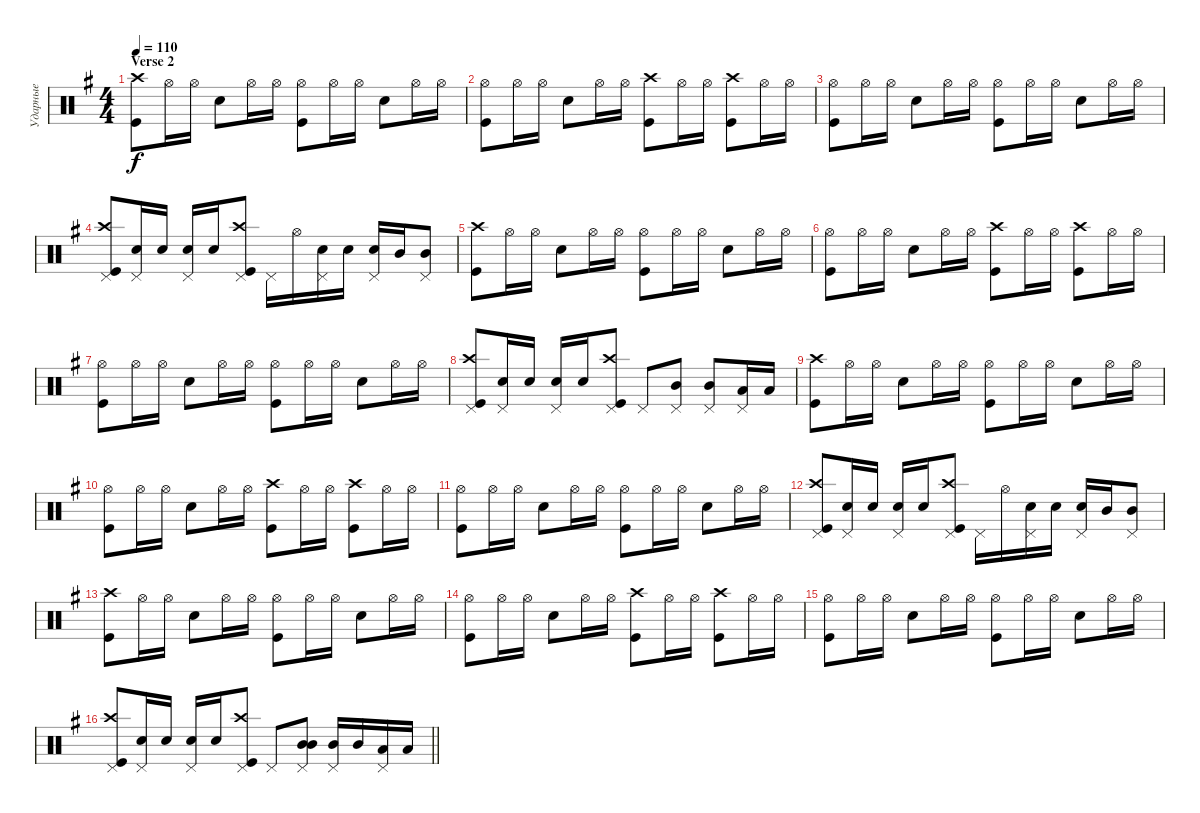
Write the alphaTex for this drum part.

\track ("Ударные" "Ударные") {instrument percussion}
\staff {score}
\articulation defaults
\ts (4 4)
\section ("" "Verse 2")
\tempo 110
\clef neutral
\ks eminor
("Kick (hit)" "Crash high (hit)").8{dy f} "Hi-Hat (open)".16 "Hi-Hat (open)".16 "Snare (hit) 2".8 "Hi-Hat (open)".16 "Hi-Hat (open)".16 ("Kick (hit)" "Hi-Hat (open)").8 "Hi-Hat (open)".16 "Hi-Hat (open)".16 "Snare (hit) 2".8 "Hi-Hat (open)".16 "Hi-Hat (open)".16 |
("Kick (hit)" "Hi-Hat (open)").8 "Hi-Hat (open)".16 "Hi-Hat (open)".16 "Snare (hit) 2".8 "Hi-Hat (open)".16 "Hi-Hat (open)".16 ("Kick (hit)" "Crash high (hit)").8 "Hi-Hat (open)".16 "Hi-Hat (open)".16 ("Kick (hit)" "Crash high (hit)").8 "Hi-Hat (open)".16 "Hi-Hat (open)".16 |
("Kick (hit)" "Hi-Hat (open)").8 "Hi-Hat (open)".16 "Hi-Hat (open)".16 "Snare (hit) 2".8 "Hi-Hat (open)".16 "Hi-Hat (open)".16 ("Kick (hit)" "Hi-Hat (open)").8 "Hi-Hat (open)".16 "Hi-Hat (open)".16 "Snare (hit) 2".8 "Hi-Hat (open)".16 "Hi-Hat (open)".16 |
("Kick (hit)" "Crash high (hit)" "Pedal Hi-Hat (hit)").8 ("Snare (hit) 2" "Pedal Hi-Hat (hit)").16 "Snare (hit) 2".16 ("Snare (hit) 2" "Pedal Hi-Hat (hit)").16 "Snare (hit) 2".16 ("Kick (hit)" "Crash high (hit)" "Pedal Hi-Hat (hit)").8 "Pedal Hi-Hat (hit)".16 "Hi-Hat (open)".16 ("Snare (hit) 2" "Pedal Hi-Hat (hit)").16 "Snare (hit) 2".16 ("Snare (hit) 2" "Pedal Hi-Hat (hit)").16 "Mid Tom (hit)".16 ("Mid Tom (hit)" "Pedal Hi-Hat (hit)").8 |
("Kick (hit)" "Crash high (hit)").8 "Hi-Hat (open)".16 "Hi-Hat (open)".16 "Snare (hit) 2".8 "Hi-Hat (open)".16 "Hi-Hat (open)".16 ("Kick (hit)" "Hi-Hat (open)").8 "Hi-Hat (open)".16 "Hi-Hat (open)".16 "Snare (hit) 2".8 "Hi-Hat (open)".16 "Hi-Hat (open)".16 |
("Kick (hit)" "Hi-Hat (open)").8 "Hi-Hat (open)".16 "Hi-Hat (open)".16 "Snare (hit) 2".8 "Hi-Hat (open)".16 "Hi-Hat (open)".16 ("Kick (hit)" "Crash high (hit)").8 "Hi-Hat (open)".16 "Hi-Hat (open)".16 ("Kick (hit)" "Crash high (hit)").8 "Hi-Hat (open)".16 "Hi-Hat (open)".16 |
("Kick (hit)" "Hi-Hat (open)").8 "Hi-Hat (open)".16 "Hi-Hat (open)".16 "Snare (hit) 2".8 "Hi-Hat (open)".16 "Hi-Hat (open)".16 ("Kick (hit)" "Hi-Hat (open)").8 "Hi-Hat (open)".16 "Hi-Hat (open)".16 "Snare (hit) 2".8 "Hi-Hat (open)".16 "Hi-Hat (open)".16 |
("Kick (hit)" "Crash high (hit)" "Pedal Hi-Hat (hit)").8 ("Snare (hit) 2" "Pedal Hi-Hat (hit)").16 "Snare (hit) 2".16 ("Snare (hit) 2" "Pedal Hi-Hat (hit)").16 "Snare (hit) 2".16 ("Kick (hit)" "Crash high (hit)" "Pedal Hi-Hat (hit)").8 "Pedal Hi-Hat (hit)".8 ("Mid Tom (hit)" "Pedal Hi-Hat (hit)").8 ("Mid Tom (hit)" "Pedal Hi-Hat (hit)").8 ("Low Tom (hit)" "Pedal Hi-Hat (hit)").16 "Low Tom (hit)".16 |
("Kick (hit)" "Crash high (hit)").8 "Hi-Hat (open)".16 "Hi-Hat (open)".16 "Snare (hit) 2".8 "Hi-Hat (open)".16 "Hi-Hat (open)".16 ("Kick (hit)" "Hi-Hat (open)").8 "Hi-Hat (open)".16 "Hi-Hat (open)".16 "Snare (hit) 2".8 "Hi-Hat (open)".16 "Hi-Hat (open)".16 |
("Kick (hit)" "Hi-Hat (open)").8 "Hi-Hat (open)".16 "Hi-Hat (open)".16 "Snare (hit) 2".8 "Hi-Hat (open)".16 "Hi-Hat (open)".16 ("Kick (hit)" "Crash high (hit)").8 "Hi-Hat (open)".16 "Hi-Hat (open)".16 ("Kick (hit)" "Crash high (hit)").8 "Hi-Hat (open)".16 "Hi-Hat (open)".16 |
("Kick (hit)" "Hi-Hat (open)").8 "Hi-Hat (open)".16 "Hi-Hat (open)".16 "Snare (hit) 2".8 "Hi-Hat (open)".16 "Hi-Hat (open)".16 ("Kick (hit)" "Hi-Hat (open)").8 "Hi-Hat (open)".16 "Hi-Hat (open)".16 "Snare (hit) 2".8 "Hi-Hat (open)".16 "Hi-Hat (open)".16 |
("Kick (hit)" "Crash high (hit)" "Pedal Hi-Hat (hit)").8 ("Snare (hit) 2" "Pedal Hi-Hat (hit)").16 "Snare (hit) 2".16 ("Snare (hit) 2" "Pedal Hi-Hat (hit)").16 "Snare (hit) 2".16 ("Kick (hit)" "Crash high (hit)" "Pedal Hi-Hat (hit)").8 "Pedal Hi-Hat (hit)".16 "Hi-Hat (open)".16 ("Snare (hit) 2" "Pedal Hi-Hat (hit)").16 "Snare (hit) 2".16 ("Snare (hit) 2" "Pedal Hi-Hat (hit)").16 "Mid Tom (hit)".16 ("Mid Tom (hit)" "Pedal Hi-Hat (hit)").8 |
("Kick (hit)" "Crash high (hit)").8 "Hi-Hat (open)".16 "Hi-Hat (open)".16 "Snare (hit) 2".8 "Hi-Hat (open)".16 "Hi-Hat (open)".16 ("Kick (hit)" "Hi-Hat (open)").8 "Hi-Hat (open)".16 "Hi-Hat (open)".16 "Snare (hit) 2".8 "Hi-Hat (open)".16 "Hi-Hat (open)".16 |
("Kick (hit)" "Hi-Hat (open)").8 "Hi-Hat (open)".16 "Hi-Hat (open)".16 "Snare (hit) 2".8 "Hi-Hat (open)".16 "Hi-Hat (open)".16 ("Kick (hit)" "Crash high (hit)").8 "Hi-Hat (open)".16 "Hi-Hat (open)".16 ("Kick (hit)" "Crash high (hit)").8 "Hi-Hat (open)".16 "Hi-Hat (open)".16 |
("Kick (hit)" "Hi-Hat (open)").8 "Hi-Hat (open)".16 "Hi-Hat (open)".16 "Snare (hit) 2".8 "Hi-Hat (open)".16 "Hi-Hat (open)".16 ("Kick (hit)" "Hi-Hat (open)").8 "Hi-Hat (open)".16 "Hi-Hat (open)".16 "Snare (hit) 2".8 "Hi-Hat (open)".16 "Hi-Hat (open)".16 |
\barLineRight lightlight
("Kick (hit)" "Crash high (hit)" "Pedal Hi-Hat (hit)").8 ("Snare (hit) 2" "Pedal Hi-Hat (hit)").16 "Snare (hit) 2".16 ("Snare (hit) 2" "Pedal Hi-Hat (hit)").16 "Snare (hit) 2".16 ("Kick (hit)" "Crash high (hit)" "Pedal Hi-Hat (hit)").8 "Pedal Hi-Hat (hit)".8 ("Mid Tom (hit)" "Mid Tom (hit)" "Pedal Hi-Hat (hit)").8{bd 480} ("Mid Tom (hit)" "Pedal Hi-Hat (hit)").16 "Mid Tom (hit)".16 ("Low Tom (hit)" "Pedal Hi-Hat (hit)").16 "Low Tom (hit)".16
